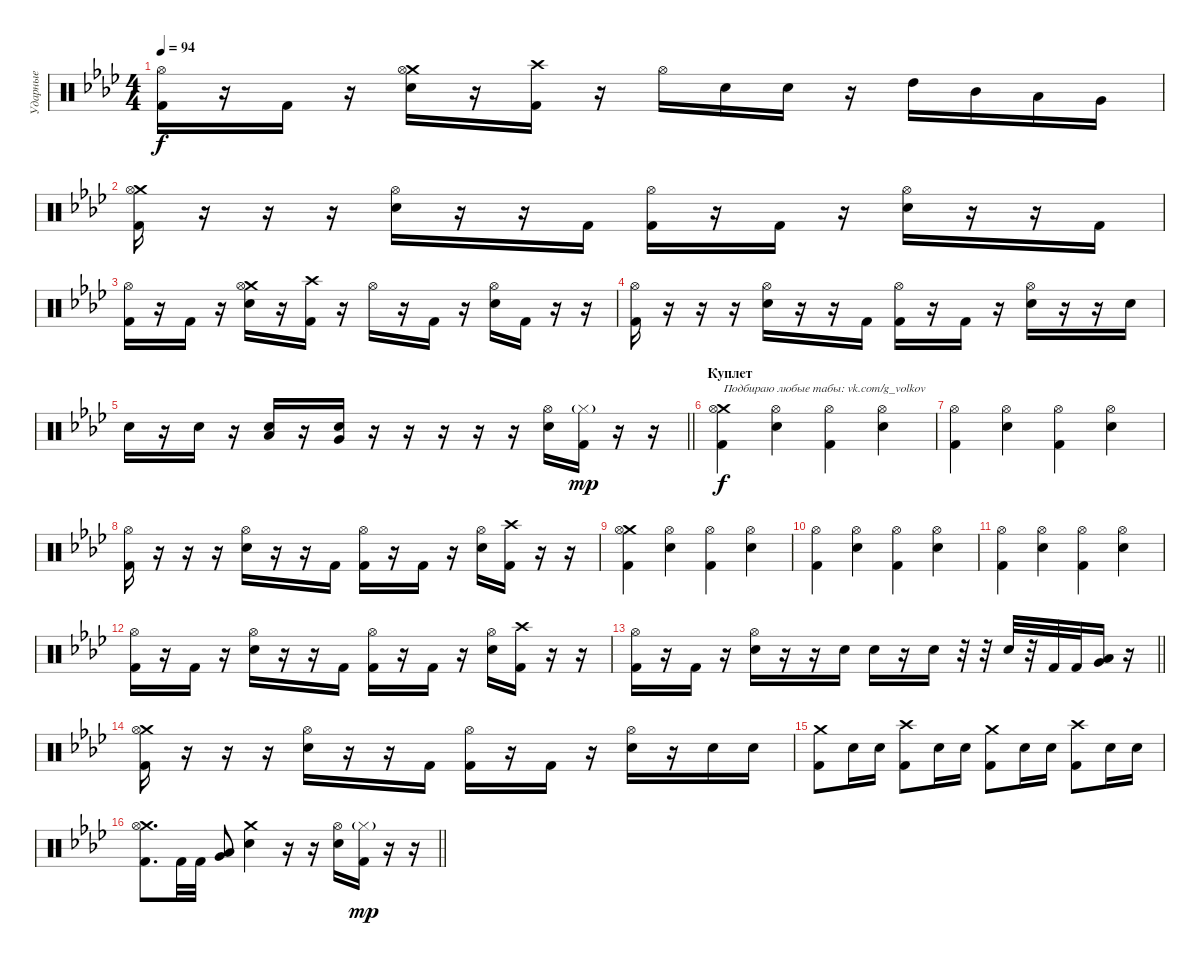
\track ("Ударные" "Ударные") {instrument percussion}
\staff {score}
\articulation defaults
\ts (4 4)
\tempo 94
\clef neutral
\ks fminor
("Kick (hit) 2" "Hi-Hat (open)").16{dy f} r.16 "Kick (hit) 2".16 r.16 ("Crash medium (hit)" "Electric Snare (hit)" "Hi-Hat (open)").16 r.16 ("Crash high (hit)" "Kick (hit) 2").16 r.16 "Hi-Hat (open)".16 "Electric Snare (hit)".16 "Electric Snare (hit)".16 r.16 "High Tom (hit)".16 "Mid Tom (hit)".16 "Low Tom (hit)".16 "Very Low Tom (hit)".16 |
("Crash medium (hit)" "Kick (hit) 2" "Hi-Hat (open)").16 r.16 r.16 r.16 ("Electric Snare (hit)" "Hi-Hat (open)").16 r.16 r.16 "Kick (hit) 2".16 ("Kick (hit) 2" "Hi-Hat (open)").16 r.16 "Kick (hit) 2".16 r.16 ("Electric Snare (hit)" "Hi-Hat (open)").16 r.16 r.16 "Kick (hit) 2".16 |
("Kick (hit) 2" "Hi-Hat (open)").16 r.16 "Kick (hit) 2".16 r.16 ("Crash medium (hit)" "Electric Snare (hit)" "Hi-Hat (open)").16 r.16 ("Crash high (hit)" "Kick (hit) 2").16 r.16 "Hi-Hat (open)".16 r.16 "Kick (hit) 2".16 r.16 ("Electric Snare (hit)" "Hi-Hat (open)").16 "Kick (hit) 2".16 r.16 r.16 |
("Kick (hit) 2" "Hi-Hat (open)").16 r.16 r.16 r.16 ("Electric Snare (hit)" "Hi-Hat (open)").16 r.16 r.16 "Kick (hit) 2".16 ("Kick (hit) 2" "Hi-Hat (open)").16 r.16 "Kick (hit) 2".16 r.16 ("Electric Snare (hit)" "Hi-Hat (open)").16 r.16 r.16 "Electric Snare (hit)".16 |
\barLineRight lightlight "Electric Snare (hit)".16
r.16 "Electric Snare (hit)".16 r.16 ("Electric Snare (hit)" "Low Tom (hit)").16 r.16 ("Electric Snare (hit)" "Very Low Tom (hit)").16 r.16 r.16 r.16 r.16 r.16 ("Electric Snare (hit)" "Hi-Hat (open)").16 ("Kick (hit) 2" "Hi-Hat (closed)"{g}).16{dy mp} r.16 r.16 |
\section ("" "Куплет")
("Crash medium (hit)" "Kick (hit) 2" "Hi-Hat (open)").4{txt "Подбираю любые табы: vk.com/g_volkov" dy f} ("Electric Snare (hit)" "Hi-Hat (open)").4 ("Kick (hit) 2" "Hi-Hat (open)").4 ("Electric Snare (hit)" "Hi-Hat (open)").4 |
("Kick (hit) 2" "Hi-Hat (open)").4 ("Electric Snare (hit)" "Hi-Hat (open)").4 ("Kick (hit) 2" "Hi-Hat (open)").4 ("Electric Snare (hit)" "Hi-Hat (open)").4 |
("Kick (hit) 2" "Hi-Hat (open)").16 r.16 r.16 r.16 ("Electric Snare (hit)" "Hi-Hat (open)").16 r.16 r.16 "Kick (hit) 2".16 ("Kick (hit) 2" "Hi-Hat (open)").16 r.16 "Kick (hit) 2".16 r.16 ("Electric Snare (hit)" "Hi-Hat (open)").16 ("Crash high (hit)" "Kick (hit) 2").16 r.16 r.16 |
("Crash medium (hit)" "Kick (hit) 2" "Hi-Hat (open)").4 ("Electric Snare (hit)" "Hi-Hat (open)").4 ("Kick (hit) 2" "Hi-Hat (open)").4 ("Electric Snare (hit)" "Hi-Hat (open)").4 |
("Kick (hit) 2" "Hi-Hat (open)").4 ("Electric Snare (hit)" "Hi-Hat (open)").4 ("Kick (hit) 2" "Hi-Hat (open)").4 ("Electric Snare (hit)" "Hi-Hat (open)").4 |
("Kick (hit) 2" "Hi-Hat (open)").4 ("Electric Snare (hit)" "Hi-Hat (open)").4 ("Kick (hit) 2" "Hi-Hat (open)").4 ("Electric Snare (hit)" "Hi-Hat (open)").4 |
("Kick (hit) 2" "Hi-Hat (open)").16 r.16 "Kick (hit) 2".16 r.16 ("Electric Snare (hit)" "Hi-Hat (open)").16 r.16 r.16 "Kick (hit) 2".16 ("Kick (hit) 2" "Hi-Hat (open)").16 r.16 "Kick (hit) 2".16 r.16 ("Electric Snare (hit)" "Hi-Hat (open)").16 ("Crash high (hit)" "Kick (hit) 2").16 r.16 r.16 |
\barLineRight lightlight
("Kick (hit) 2" "Hi-Hat (open)").16 r.16 "Kick (hit) 2".16 r.16 ("Electric Snare (hit)" "Hi-Hat (open)").16 r.16 r.16 "Electric Snare (hit)".16 "Electric Snare (hit)".16 r.16 "Electric Snare (hit)".16 r.32 r.32 "Electric Snare (hit)".32 r.32 "Kick (hit) 2".32 "Kick (hit) 2".32 ("Low Floor Tom (hit)" "Very Low Tom (hit)").16 r.16 |
\section ("" "")
("Crash medium (hit)" "Kick (hit) 2" "Hi-Hat (open)").16 r.16 r.16 r.16 ("Electric Snare (hit)" "Hi-Hat (open)").16 r.16 r.16 "Kick (hit) 2".16 ("Kick (hit) 2" "Hi-Hat (open)").16 r.16 "Kick (hit) 2".16 r.16 ("Electric Snare (hit)" "Hi-Hat (open)").16 r.16 "Electric Snare (hit)".16 "Electric Snare (hit)".16 |
("Crash medium (hit)" "Kick (hit) 2").8 "Electric Snare (hit)".16 "Electric Snare (hit)".16 ("Crash high (hit)" "Kick (hit) 2").8 "Electric Snare (hit)".16 "Electric Snare (hit)".16 ("Crash medium (hit)" "Kick (hit) 2").8 "Electric Snare (hit)".16 "Electric Snare (hit)".16 ("Crash high (hit)" "Kick (hit) 2").8 "Electric Snare (hit)".16 "Electric Snare (hit)".16 |
\barLineRight lightlight
("Crash medium (hit)" "Kick (hit) 2" "Hi-Hat (open)").8{d} "Kick (hit) 2".32 "Kick (hit) 2".32 ("Low Floor Tom (hit)" "Very Low Tom (hit)").8 ("Crash medium (hit)" "Electric Snare (hit)").4 r.16 r.16 ("Hi-Hat (open)" "Electric Snare (hit)").16 ("Hi-Hat (closed)"{g} "Kick (hit) 2").16{dy mp} r.16 r.16
